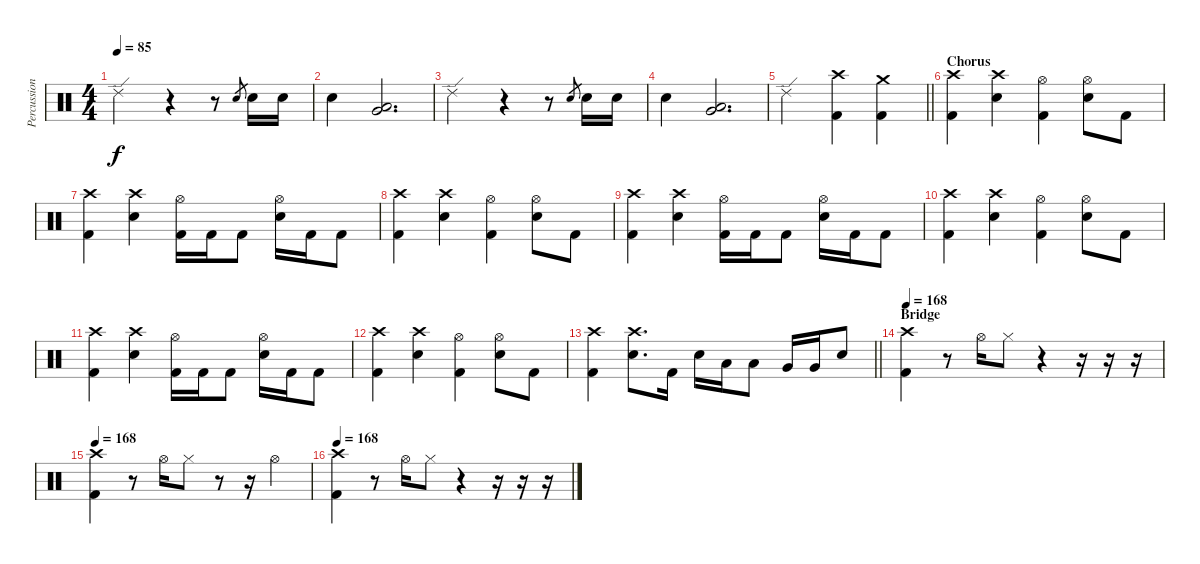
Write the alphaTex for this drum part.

\track ("Percussion" "Percussion") {instrument percussion}
\staff {score}
\articulation defaults
\ts (4 4)
\tempo 85
\clef neutral
\ks c "Ride (edge) 2".2{dy f}
r.4 r.8 "Snare (hit) 2".8{gr} "Snare (hit) 2".16 "Snare (hit) 2".16 |
"Snare (hit) 2".4 ("Low Floor Tom (hit)" "Very Low Tom (hit)").2{d} |
"Ride (edge) 2".2 r.4 r.8 "Snare (hit) 2".8{gr} "Snare (hit) 2".16 "Snare (hit) 2".16 |
"Snare (hit) 2".4 ("Low Floor Tom (hit)" "Very Low Tom (hit)").2{d} |
\barLineRight lightlight "Ride (edge) 2".2
("Crash high (hit)" "Kick (hit) 2").4 ("Crash medium (hit)" "Kick (hit) 2").4 |
\section ("" "Chorus")
("Crash high (hit)" "Kick (hit) 2").4 ("Crash high (hit)" "Snare (hit) 2").4 ("Hi-Hat (open)" "Kick (hit) 2").4 ("Hi-Hat (open)" "Snare (hit) 2").8 "Kick (hit) 2".8 |
("Crash high (hit)" "Kick (hit) 2").4 ("Crash high (hit)" "Snare (hit) 2").4 ("Hi-Hat (open)" "Kick (hit) 2").16 "Kick (hit) 2".16 "Kick (hit) 2".8 ("Hi-Hat (open)" "Snare (hit) 2").16 "Kick (hit) 2".16 "Kick (hit) 2".8 |
("Crash high (hit)" "Kick (hit) 2").4 ("Crash high (hit)" "Snare (hit) 2").4 ("Hi-Hat (open)" "Kick (hit) 2").4 ("Hi-Hat (open)" "Snare (hit) 2").8 "Kick (hit) 2".8 |
("Crash high (hit)" "Kick (hit) 2").4 ("Crash high (hit)" "Snare (hit) 2").4 ("Hi-Hat (open)" "Kick (hit) 2").16 "Kick (hit) 2".16 "Kick (hit) 2".8 ("Hi-Hat (open)" "Snare (hit) 2").16 "Kick (hit) 2".16 "Kick (hit) 2".8 |
("Crash high (hit)" "Kick (hit) 2").4 ("Crash high (hit)" "Snare (hit) 2").4 ("Hi-Hat (open)" "Kick (hit) 2").4 ("Hi-Hat (open)" "Snare (hit) 2").8 "Kick (hit) 2".8 |
("Crash high (hit)" "Kick (hit) 2").4 ("Crash high (hit)" "Snare (hit) 2").4 ("Hi-Hat (open)" "Kick (hit) 2").16 "Kick (hit) 2".16 "Kick (hit) 2".8 ("Hi-Hat (open)" "Snare (hit) 2").16 "Kick (hit) 2".16 "Kick (hit) 2".8 |
("Crash high (hit)" "Kick (hit) 2").4 ("Crash high (hit)" "Snare (hit) 2").4 ("Hi-Hat (open)" "Kick (hit) 2").4 ("Hi-Hat (open)" "Snare (hit) 2").8 "Kick (hit) 2".8 |
\barLineRight lightlight
("Crash high (hit)" "Kick (hit) 2").4 ("Crash high (hit)" "Snare (hit) 2").8{d} "Kick (hit) 2".16 "Snare (hit) 2".16 "Low Tom (hit)".16 "Low Tom (hit)".8 "Very Low Tom (hit)".16 "Very Low Tom (hit)".16 "Snare (hit) 2".8 |
\section ("" "Bridge")
\tempo 168
("Crash high (hit)" "Kick (hit) 2").4 r.8 "Hi-Hat (open)".16 "Hi-Hat (closed)".8 r.4 r.16 r.16 r.16 |
\tempo 168
("Crash high (hit)" "Kick (hit) 2").4 r.8 "Hi-Hat (open)".16 "Hi-Hat (closed)".8 r.8 r.16 "Hi-Hat (open)".4 |
\tempo 168
("Crash high (hit)" "Kick (hit) 2").4 r.8 "Hi-Hat (open)".16 "Hi-Hat (closed)".8 r.4 r.16 r.16 r.16
